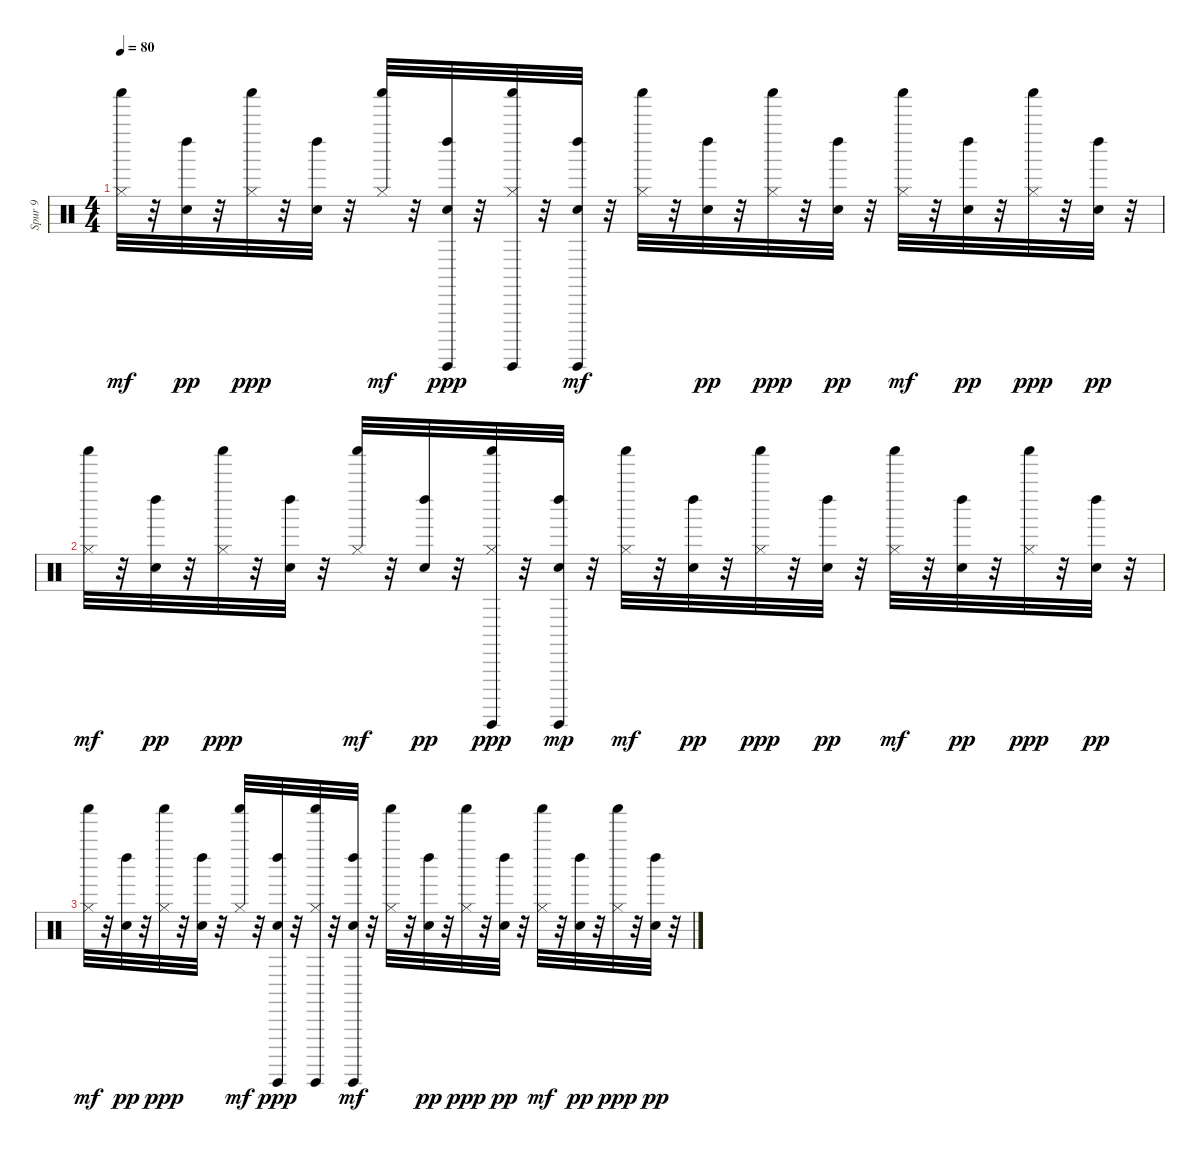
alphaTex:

\track ("Spur 9" "Spur 9") {instrument percussion}
\staff {score}
\articulation defaults
\ts (4 4)
\tempo 80
\clef neutral
\ks c
("Hi-Hat (closed)" "Shaker (hit)").32{dy mf} r.32 ("Snare (hit)" "Left Maraca (hit)").32{dy pp} r.32 ("Hi-Hat (closed)" "Shaker (hit)").32{dy ppp} r.32 ("Snare (hit)" "Left Maraca (hit)").32 r.32 ("Hi-Hat (closed)" "Shaker (hit)").32{dy mf} r.32 ("Snare (hit)" "Left Maraca (hit)" "Guiro (hit)").32{dy ppp} r.32 ("Hi-Hat (closed)" "Guiro (hit)" "Shaker (hit)").32 r.32 ("Snare (hit)" "Left Maraca (hit)" "Guiro (hit)").32{dy mf} r.32 ("Hi-Hat (closed)" "Shaker (hit)").32 r.32 ("Snare (hit)" "Left Maraca (hit)").32{dy pp} r.32 ("Hi-Hat (closed)" "Shaker (hit)").32{dy ppp} r.32 ("Snare (hit)" "Left Maraca (hit)").32{dy pp} r.32 ("Hi-Hat (closed)" "Shaker (hit)").32{dy mf} r.32 ("Snare (hit)" "Left Maraca (hit)").32{dy pp} r.32 ("Hi-Hat (closed)" "Shaker (hit)").32{dy ppp} r.32 ("Snare (hit)" "Left Maraca (hit)").32{dy pp} r.32 |
("Hi-Hat (closed)" "Shaker (hit)").32{dy mf} r.32 ("Snare (hit)" "Left Maraca (hit)").32{dy pp} r.32 ("Hi-Hat (closed)" "Shaker (hit)").32{dy ppp} r.32 ("Snare (hit)" "Left Maraca (hit)").32 r.32 ("Hi-Hat (closed)" "Shaker (hit)").32{dy mf} r.32 ("Snare (hit)" "Left Maraca (hit)").32{dy pp} r.32 ("Hi-Hat (closed)" "Guiro (hit)" "Shaker (hit)").32{dy ppp} r.32 ("Snare (hit)" "Left Maraca (hit)" "Guiro (hit)").32{dy mp} r.32 ("Hi-Hat (closed)" "Shaker (hit)").32{dy mf} r.32 ("Snare (hit)" "Left Maraca (hit)").32{dy pp} r.32 ("Hi-Hat (closed)" "Shaker (hit)").32{dy ppp} r.32 ("Snare (hit)" "Left Maraca (hit)").32{dy pp} r.32 ("Hi-Hat (closed)" "Shaker (hit)").32{dy mf} r.32 ("Snare (hit)" "Left Maraca (hit)").32{dy pp} r.32 ("Hi-Hat (closed)" "Shaker (hit)").32{dy ppp} r.32 ("Snare (hit)" "Left Maraca (hit)").32{dy pp} r.32 |
("Hi-Hat (closed)" "Shaker (hit)").32{dy mf} r.32 ("Snare (hit)" "Left Maraca (hit)").32{dy pp} r.32 ("Hi-Hat (closed)" "Shaker (hit)").32{dy ppp} r.32 ("Snare (hit)" "Left Maraca (hit)").32 r.32 ("Hi-Hat (closed)" "Shaker (hit)").32{dy mf} r.32 ("Snare (hit)" "Left Maraca (hit)" "Guiro (hit)").32{dy ppp} r.32 ("Hi-Hat (closed)" "Guiro (hit)" "Shaker (hit)").32 r.32 ("Snare (hit)" "Left Maraca (hit)" "Guiro (hit)").32{dy mf} r.32 ("Hi-Hat (closed)" "Shaker (hit)").32 r.32 ("Snare (hit)" "Left Maraca (hit)").32{dy pp} r.32 ("Hi-Hat (closed)" "Shaker (hit)").32{dy ppp} r.32 ("Snare (hit)" "Left Maraca (hit)").32{dy pp} r.32 ("Hi-Hat (closed)" "Shaker (hit)").32{dy mf} r.32 ("Snare (hit)" "Left Maraca (hit)").32{dy pp} r.32 ("Hi-Hat (closed)" "Shaker (hit)").32{dy ppp} r.32 ("Snare (hit)" "Left Maraca (hit)").32{dy pp} r.32
